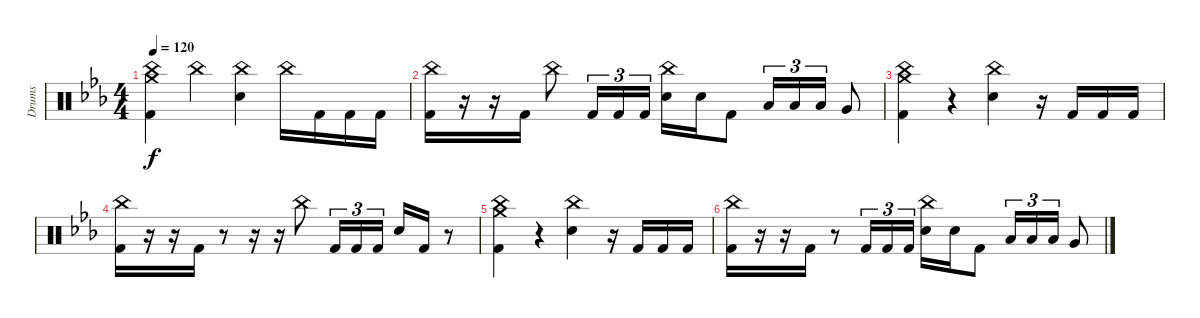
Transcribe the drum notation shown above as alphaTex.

\track ("Drums" "Drums") {instrument percussion}
\staff {score}
\articulation defaults
\ts (4 4)
\tempo 120
\clef neutral
\ks cminor
("Crash medium (hit)" "China (hit)" "Kick (hit) 2").4{dy f} "China (hit)".4 ("China (hit)" "Electric Snare (hit)").4 "China (hit)".16 "Kick (hit) 2".16 "Kick (hit) 2".16 "Kick (hit) 2".16 |
("China (hit)" "Kick (hit) 2").16 r.16 r.16 "Kick (hit) 2".16 "China (hit)".8 "Kick (hit) 2".16{tu (3 2)} "Kick (hit) 2".16{tu (3 2)} "Kick (hit) 2".16{tu (3 2)} ("China (hit)" "Electric Snare (hit)").16 "Electric Snare (hit)".16 "Kick (hit) 2".8 "Low Tom (hit)".16{tu (3 2)} "Low Tom (hit)".16{tu (3 2)} "Low Tom (hit)".16{tu (3 2)} "Very Low Tom (hit)".8 |
("Crash medium (hit)" "China (hit)" "Kick (hit) 2").4 r.4 ("China (hit)" "Electric Snare (hit)").4 r.16 "Kick (hit) 2".16 "Kick (hit) 2".16 "Kick (hit) 2".16 |
("China (hit)" "Kick (hit) 2").16 r.16 r.16 "Kick (hit) 2".16 r.8 r.16 r.16 "China (hit)".8 "Kick (hit) 2".16{tu (3 2)} "Kick (hit) 2".16{tu (3 2)} "Kick (hit) 2".16{tu (3 2)} "Electric Snare (hit)".16 "Kick (hit) 2".16 r.8 |
("Crash medium (hit)" "China (hit)" "Kick (hit) 2").4 r.4 ("China (hit)" "Electric Snare (hit)").4 r.16 "Kick (hit) 2".16 "Kick (hit) 2".16 "Kick (hit) 2".16 |
("China (hit)" "Kick (hit) 2").16 r.16 r.16 "Kick (hit) 2".16 r.8 "Kick (hit) 2".16{tu (3 2)} "Kick (hit) 2".16{tu (3 2)} "Kick (hit) 2".16{tu (3 2)} ("China (hit)" "Electric Snare (hit)").16 "Electric Snare (hit)".16 "Kick (hit) 2".8 "Low Tom (hit)".16{tu (3 2)} "Low Tom (hit)".16{tu (3 2)} "Low Tom (hit)".16{tu (3 2)} "Very Low Tom (hit)".8
